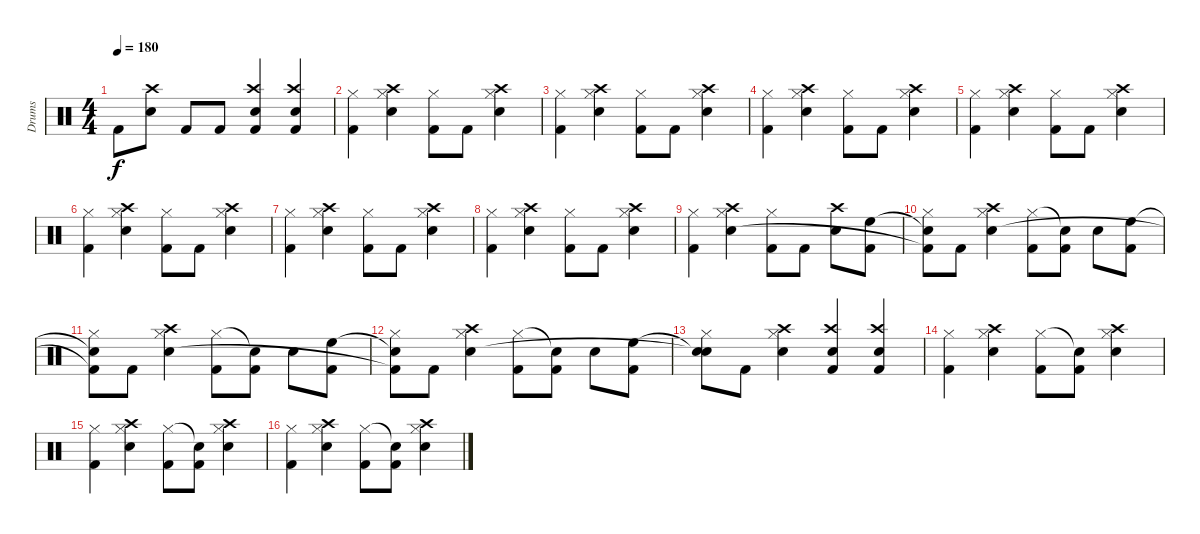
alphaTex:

\track ("Drums" "Drums") {instrument percussion}
\staff {score}
\articulation defaults
\ts (4 4)
\tempo 180
\clef neutral
\ks c "Kick (hit) 2".8{dy f}
("Crash high (hit)" "Snare (hit) 2").8 "Kick (hit) 2".8 "Kick (hit) 2".8 ("Crash high (hit)" "Snare (hit) 2" "Kick (hit) 2").4 ("Crash high (hit)" "Snare (hit) 2" "Kick (hit) 2").4 |
("Hi-Hat (closed)" "Kick (hit) 2").4 ("Crash high (hit)" "Hi-Hat (closed)" "Snare (hit) 2").4 ("Hi-Hat (closed)" "Kick (hit) 2").8 "Kick (hit) 2".8 ("Crash high (hit)" "Hi-Hat (closed)" "Snare (hit) 2").4 |
("Hi-Hat (closed)" "Kick (hit) 2").4 ("Crash high (hit)" "Hi-Hat (closed)" "Snare (hit) 2").4 ("Hi-Hat (closed)" "Kick (hit) 2").8 "Kick (hit) 2".8 ("Crash high (hit)" "Hi-Hat (closed)" "Snare (hit) 2").4 |
("Hi-Hat (closed)" "Kick (hit) 2").4 ("Crash high (hit)" "Hi-Hat (closed)" "Snare (hit) 2").4 ("Hi-Hat (closed)" "Kick (hit) 2").8 "Kick (hit) 2".8 ("Crash high (hit)" "Hi-Hat (closed)" "Snare (hit) 2").4 |
("Hi-Hat (closed)" "Kick (hit) 2").4 ("Crash high (hit)" "Hi-Hat (closed)" "Snare (hit) 2").4 ("Hi-Hat (closed)" "Kick (hit) 2").8 "Kick (hit) 2".8 ("Crash high (hit)" "Hi-Hat (closed)" "Snare (hit) 2").4 |
("Hi-Hat (closed)" "Kick (hit) 2").4 ("Crash high (hit)" "Hi-Hat (closed)" "Snare (hit) 2").4 ("Hi-Hat (closed)" "Kick (hit) 2").8 "Kick (hit) 2".8 ("Crash high (hit)" "Hi-Hat (closed)" "Snare (hit) 2").4 |
("Hi-Hat (closed)" "Kick (hit) 2").4 ("Crash high (hit)" "Hi-Hat (closed)" "Snare (hit) 2").4 ("Hi-Hat (closed)" "Kick (hit) 2").8 "Kick (hit) 2".8 ("Crash high (hit)" "Hi-Hat (closed)" "Snare (hit) 2").4 |
("Hi-Hat (closed)" "Kick (hit) 2").4 ("Crash high (hit)" "Hi-Hat (closed)" "Snare (hit) 2").4 ("Hi-Hat (closed)" "Kick (hit) 2").8 "Kick (hit) 2".8 ("Crash high (hit)" "Hi-Hat (closed)" "Snare (hit) 2").4 |
("Hi-Hat (closed)" "Kick (hit) 2").4 ("Crash high (hit)" "Hi-Hat (closed)" "Snare (hit) 2").4 ("Hi-Hat (closed)" "Kick (hit) 2").8 "Kick (hit) 2".8 ("Crash high (hit)" "Snare (hit) 2").8 ("High Floor Tom (hit)" "Kick (hit) 2").8 |
("Snare (hit)"{t} "Hi-Hat (closed)" "Kick (hit) 2"{t}).8 "Kick (hit) 2".8 ("Crash high (hit)" "Hi-Hat (closed)" "Snare (hit) 2").4 ("Hi-Hat (closed)" "Kick (hit) 2").8 ("Snare (hit)"{t} "Kick (hit) 2").8 "Snare (hit) 2".8 ("High Floor Tom (hit)" "Kick (hit) 2").8 |
("Snare (hit)"{t} "Hi-Hat (closed)" "Kick (hit) 2"{t}).8 "Kick (hit) 2".8 ("Crash high (hit)" "Hi-Hat (closed)" "Snare (hit) 2").4 ("Hi-Hat (closed)" "Kick (hit) 2").8 ("Snare (hit)"{t} "Kick (hit) 2").8 "Snare (hit) 2".8 ("High Floor Tom (hit)" "Kick (hit) 2").8 |
("Snare (hit)"{t} "Hi-Hat (closed)" "Kick (hit) 2"{t}).8 "Kick (hit) 2".8 ("Crash high (hit)" "Hi-Hat (closed)" "Snare (hit) 2").4 ("Hi-Hat (closed)" "Kick (hit) 2").8 ("Snare (hit)"{t} "Kick (hit) 2").8 "Snare (hit) 2".8 ("High Floor Tom (hit)" "Kick (hit) 2").8 |
("Snare (hit)"{t} "Hi-Hat (closed)" "Snare (hit)"{t}).8 "Kick (hit) 2".8 ("Crash high (hit)" "Hi-Hat (closed)" "Snare (hit) 2").4 ("Crash high (hit)" "Snare (hit) 2" "Kick (hit) 2").4 ("Crash high (hit)" "Snare (hit) 2" "Kick (hit) 2").4 |
("Hi-Hat (closed)" "Kick (hit) 2").4 ("Crash high (hit)" "Hi-Hat (closed)" "Snare (hit) 2").4 ("Hi-Hat (closed)" "Kick (hit) 2").8 ("Snare (hit)"{t} "Kick (hit) 2").8 ("Crash high (hit)" "Hi-Hat (closed)" "Snare (hit) 2").4 |
("Hi-Hat (closed)" "Kick (hit) 2").4 ("Crash high (hit)" "Hi-Hat (closed)" "Snare (hit) 2").4 ("Hi-Hat (closed)" "Kick (hit) 2").8 ("Snare (hit)"{t} "Kick (hit) 2").8 ("Crash high (hit)" "Hi-Hat (closed)" "Snare (hit) 2").4 |
("Hi-Hat (closed)" "Kick (hit) 2").4 ("Crash high (hit)" "Hi-Hat (closed)" "Snare (hit) 2").4 ("Hi-Hat (closed)" "Kick (hit) 2").8 ("Snare (hit)"{t} "Kick (hit) 2").8 ("Crash high (hit)" "Hi-Hat (closed)" "Snare (hit) 2").4
